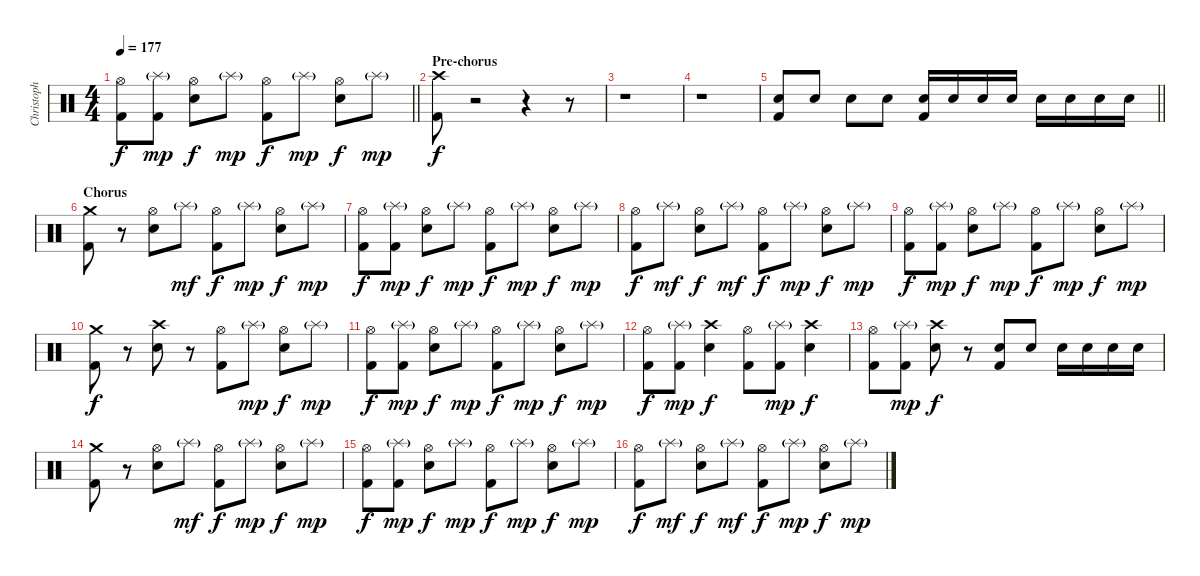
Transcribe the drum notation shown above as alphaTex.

\track ("Christoph Schneider [drums]" "Christoph ") {instrument percussion}
\staff {score}
\articulation defaults
\ts (4 4)
\tempo 177
\clef neutral
\barLineRight lightlight
\ks c
("Hi-Hat (open)" "Kick (hit) 2").8{dy f} ("Splash (hit)"{g} "Kick (hit) 2").8{dy mp} ("Hi-Hat (open)" "Snare (hit) 2").8{dy f} "Splash (hit)"{g}.8{dy mp} ("Hi-Hat (open)" "Kick (hit) 2").8{dy f} "Splash (hit)"{g}.8{dy mp} ("Hi-Hat (open)" "Snare (hit) 2").8{dy f} "Splash (hit)"{g}.8{dy mp} |
\section ("" "Pre-chorus")
("Crash high (hit)" "Kick (hit) 2").8{dy f} r.2 r.4 r.8 |
r.1 |
r.1 |
\barLineRight lightlight
("Snare (hit) 2" "Kick (hit) 2").8 "Snare (hit) 2".8 "Snare (hit) 2".8 "Snare (hit) 2".8 ("Snare (hit) 2" "Kick (hit) 2").16 "Snare (hit) 2".16 "Snare (hit) 2".16 "Snare (hit) 2".16 "Snare (hit) 2".16 "Snare (hit) 2".16 "Snare (hit) 2".16 "Snare (hit) 2".16 |
\section ("" "Chorus")
("Crash medium (hit)" "Kick (hit) 2").8 r.8 ("Hi-Hat (open)" "Snare (hit) 2").8 "Splash (hit)"{g}.8{dy mf} ("Hi-Hat (open)" "Kick (hit) 2").8{dy f} "Splash (hit)"{g}.8{dy mp} ("Hi-Hat (open)" "Snare (hit) 2").8{dy f} "Splash (hit)"{g}.8{dy mp} |
("Hi-Hat (open)" "Kick (hit) 2").8{dy f} ("Splash (hit)"{g} "Kick (hit) 2").8{dy mp} ("Hi-Hat (open)" "Snare (hit) 2").8{dy f} "Splash (hit)"{g}.8{dy mp} ("Hi-Hat (open)" "Kick (hit) 2").8{dy f} "Splash (hit)"{g}.8{dy mp} ("Hi-Hat (open)" "Snare (hit) 2").8{dy f} "Splash (hit)"{g}.8{dy mp} |
("Hi-Hat (open)" "Kick (hit) 2").8{dy f} "Splash (hit)"{g}.8{dy mf} ("Hi-Hat (open)" "Snare (hit) 2").8{dy f} "Splash (hit)"{g}.8{dy mf} ("Hi-Hat (open)" "Kick (hit) 2").8{dy f} "Splash (hit)"{g}.8{dy mp} ("Hi-Hat (open)" "Snare (hit) 2").8{dy f} "Splash (hit)"{g}.8{dy mp} |
("Hi-Hat (open)" "Kick (hit) 2").8{dy f} ("Splash (hit)"{g} "Kick (hit) 2").8{dy mp} ("Hi-Hat (open)" "Snare (hit) 2").8{dy f} "Splash (hit)"{g}.8{dy mp} ("Hi-Hat (open)" "Kick (hit) 2").8{dy f} "Splash (hit)"{g}.8{dy mp} ("Hi-Hat (open)" "Snare (hit) 2").8{dy f} "Splash (hit)"{g}.8{dy mp} |
("Crash medium (hit)" "Kick (hit) 2").8{dy f} r.8 ("Crash high (hit)" "Snare (hit) 2").8 r.8 ("Hi-Hat (open)" "Kick (hit) 2").8 "Splash (hit)"{g}.8{dy mp} ("Hi-Hat (open)" "Snare (hit) 2").8{dy f} "Splash (hit)"{g}.8{dy mp} |
("Hi-Hat (open)" "Kick (hit) 2").8{dy f} ("Splash (hit)"{g} "Kick (hit) 2").8{dy mp} ("Hi-Hat (open)" "Snare (hit) 2").8{dy f} "Splash (hit)"{g}.8{dy mp} ("Hi-Hat (open)" "Kick (hit) 2").8{dy f} "Splash (hit)"{g}.8{dy mp} ("Hi-Hat (open)" "Snare (hit) 2").8{dy f} "Splash (hit)"{g}.8{dy mp} |
("Hi-Hat (open)" "Kick (hit) 2").8{dy f} ("Splash (hit)"{g} "Kick (hit) 2").8{dy mp} ("Crash high (hit)" "Snare (hit) 2").4{dy f} ("Hi-Hat (open)" "Kick (hit) 2").8 ("Splash (hit)"{g} "Kick (hit) 2").8{dy mp} ("Crash high (hit)" "Snare (hit) 2").4{dy f} |
("Hi-Hat (open)" "Kick (hit) 2").8 ("Splash (hit)"{g} "Kick (hit) 2").8{dy mp} ("Crash high (hit)" "Snare (hit) 2").8{dy f} r.8 ("Snare (hit) 2" "Kick (hit) 2").8 "Snare (hit) 2".8 "Snare (hit) 2".16 "Snare (hit) 2".16 "Snare (hit) 2".16 "Snare (hit) 2".16 |
("Crash medium (hit)" "Kick (hit) 2").8 r.8 ("Hi-Hat (open)" "Snare (hit) 2").8 "Splash (hit)"{g}.8{dy mf} ("Hi-Hat (open)" "Kick (hit) 2").8{dy f} "Splash (hit)"{g}.8{dy mp} ("Hi-Hat (open)" "Snare (hit) 2").8{dy f} "Splash (hit)"{g}.8{dy mp} |
("Hi-Hat (open)" "Kick (hit) 2").8{dy f} ("Splash (hit)"{g} "Kick (hit) 2").8{dy mp} ("Hi-Hat (open)" "Snare (hit) 2").8{dy f} "Splash (hit)"{g}.8{dy mp} ("Hi-Hat (open)" "Kick (hit) 2").8{dy f} "Splash (hit)"{g}.8{dy mp} ("Hi-Hat (open)" "Snare (hit) 2").8{dy f} "Splash (hit)"{g}.8{dy mp} |
("Hi-Hat (open)" "Kick (hit) 2").8{dy f} "Splash (hit)"{g}.8{dy mf} ("Hi-Hat (open)" "Snare (hit) 2").8{dy f} "Splash (hit)"{g}.8{dy mf} ("Hi-Hat (open)" "Kick (hit) 2").8{dy f} "Splash (hit)"{g}.8{dy mp} ("Hi-Hat (open)" "Snare (hit) 2").8{dy f} "Splash (hit)"{g}.8{dy mp}
